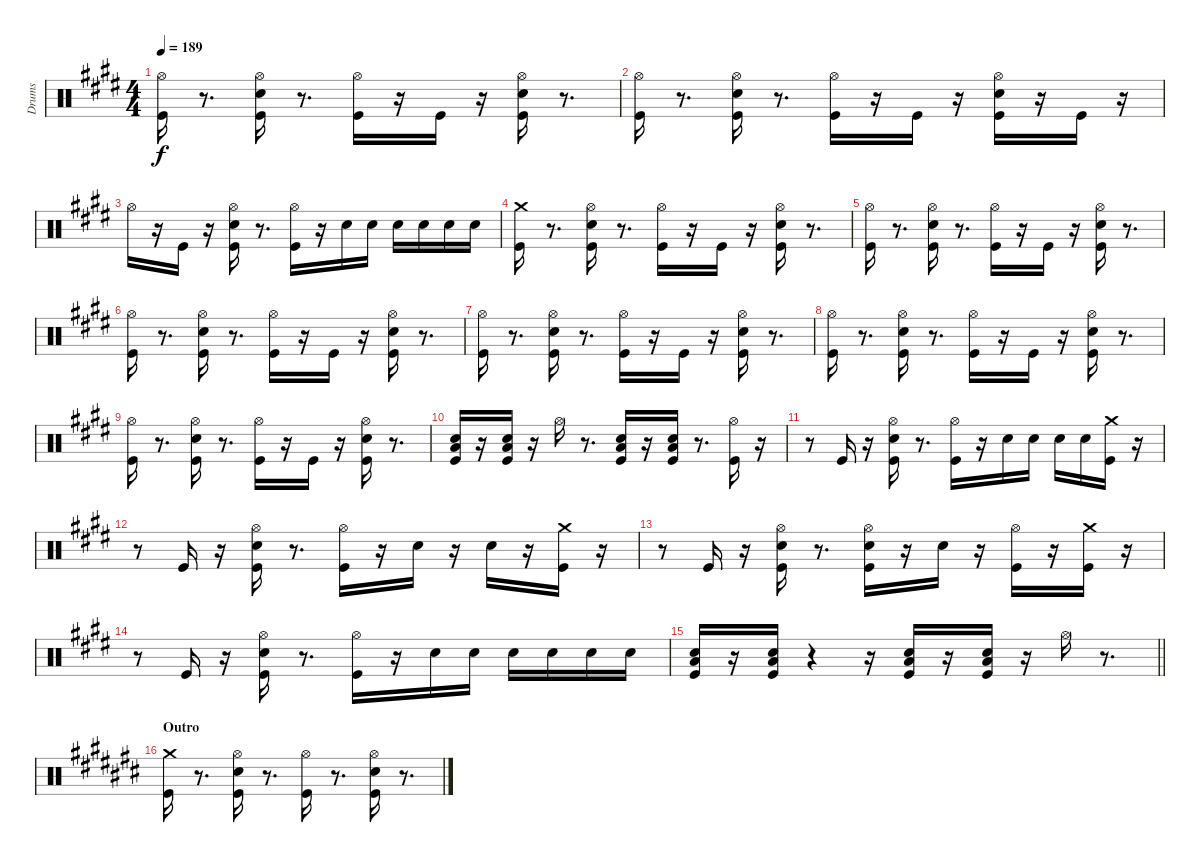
\track ("Drums" "Drums") {instrument percussion}
\staff {score}
\articulation defaults
\ts (4 4)
\tempo 189
\clef neutral
\ks c#minor
("Hi-Hat (open)" "Kick (hit)").16{dy f} r.8{d} ("Hi-Hat (open)" "Electric Snare (hit)" "Kick (hit)").16 r.8{d} ("Hi-Hat (open)" "Kick (hit)").16 r.16 "Kick (hit)".16 r.16 ("Hi-Hat (open)" "Electric Snare (hit)" "Kick (hit)").16 r.8{d} |
("Hi-Hat (open)" "Kick (hit)").16 r.8{d} ("Hi-Hat (open)" "Electric Snare (hit)" "Kick (hit)").16 r.8{d} ("Hi-Hat (open)" "Kick (hit)").16 r.16 "Kick (hit)".16 r.16 ("Hi-Hat (open)" "Electric Snare (hit)" "Kick (hit)").16 r.16 "Kick (hit)".16 r.16 |
"Hi-Hat (open)".16 r.16 "Kick (hit)".16 r.16 ("Hi-Hat (open)" "Electric Snare (hit)" "Kick (hit)").16 r.8{d} ("Hi-Hat (open)" "Kick (hit)").16 r.16 "Electric Snare (hit)".16 "Electric Snare (hit)".16 "Electric Snare (hit)".16 "Electric Snare (hit)".16 "Electric Snare (hit)".16 "Electric Snare (hit)".16 |
\ks e
("Crash medium (hit)" "Kick (hit)").16 r.8{d} ("Hi-Hat (open)" "Electric Snare (hit)" "Kick (hit)").16 r.8{d} ("Hi-Hat (open)" "Kick (hit)").16 r.16 "Kick (hit)".16 r.16 ("Hi-Hat (open)" "Electric Snare (hit)" "Kick (hit)").16 r.8{d} |
\ks c#minor
("Hi-Hat (open)" "Kick (hit)").16 r.8{d} ("Hi-Hat (open)" "Electric Snare (hit)" "Kick (hit)").16 r.8{d} ("Hi-Hat (open)" "Kick (hit)").16 r.16 "Kick (hit)".16 r.16 ("Hi-Hat (open)" "Electric Snare (hit)" "Kick (hit)").16 r.8{d} |
("Hi-Hat (open)" "Kick (hit)").16 r.8{d} ("Hi-Hat (open)" "Electric Snare (hit)" "Kick (hit)").16 r.8{d} ("Hi-Hat (open)" "Kick (hit)").16 r.16 "Kick (hit)".16 r.16 ("Hi-Hat (open)" "Electric Snare (hit)" "Kick (hit)").16 r.8{d} |
("Hi-Hat (open)" "Kick (hit)").16 r.8{d} ("Hi-Hat (open)" "Electric Snare (hit)" "Kick (hit)").16 r.8{d} ("Hi-Hat (open)" "Kick (hit)").16 r.16 "Kick (hit)".16 r.16 ("Hi-Hat (open)" "Electric Snare (hit)" "Kick (hit)").16 r.8{d} |
\ks e
("Hi-Hat (open)" "Kick (hit)").16 r.8{d} ("Hi-Hat (open)" "Electric Snare (hit)" "Kick (hit)").16 r.8{d} ("Hi-Hat (open)" "Kick (hit)").16 r.16 "Kick (hit)".16 r.16 ("Hi-Hat (open)" "Electric Snare (hit)" "Kick (hit)").16 r.8{d} |
\ks c#minor
("Hi-Hat (open)" "Kick (hit)").16 r.8{d} ("Hi-Hat (open)" "Electric Snare (hit)" "Kick (hit)").16 r.8{d} ("Hi-Hat (open)" "Kick (hit)").16 r.16 "Kick (hit)".16 r.16 ("Hi-Hat (open)" "Electric Snare (hit)" "Kick (hit)").16 r.8{d} |
("Electric Snare (hit)" "Low Floor Tom (hit)" "Kick (hit)").16 r.16 ("Electric Snare (hit)" "Low Floor Tom (hit)" "Kick (hit)").16 r.16 "Hi-Hat (open)".16 r.8{d} ("Electric Snare (hit)" "Low Floor Tom (hit)" "Kick (hit)").16 r.16 ("Electric Snare (hit)" "Low Floor Tom (hit)" "Kick (hit)").16 r.8{d} ("Hi-Hat (open)" "Kick (hit)").16 r.16 |
r.8 "Kick (hit)".16 r.16 ("Hi-Hat (open)" "Electric Snare (hit)" "Kick (hit)").16 r.8{d} ("Hi-Hat (open)" "Kick (hit)").16 r.16 "Electric Snare (hit)".16 "Electric Snare (hit)".16 "Electric Snare (hit)".16 "Electric Snare (hit)".16 ("Crash medium (hit)" "Kick (hit)").16 r.16 |
\ks e
r.8 "Kick (hit)".16 r.16 ("Hi-Hat (open)" "Electric Snare (hit)" "Kick (hit)").16 r.8{d} ("Hi-Hat (open)" "Kick (hit)").16 r.16 "Electric Snare (hit)".16 r.16 "Electric Snare (hit)".16 r.16 ("Crash medium (hit)" "Kick (hit)").16 r.16 |
\ks c#minor
r.8 "Kick (hit)".16 r.16 ("Hi-Hat (open)" "Electric Snare (hit)" "Kick (hit)").16 r.8{d} ("Hi-Hat (open)" "Electric Snare (hit)" "Kick (hit)").16 r.16 "Electric Snare (hit)".16 r.16 ("Hi-Hat (open)" "Kick (hit)").16 r.16 ("Crash medium (hit)" "Kick (hit)").16 r.16 |
r.8 "Kick (hit)".16 r.16 ("Hi-Hat (open)" "Electric Snare (hit)" "Kick (hit)").16 r.8{d} ("Hi-Hat (open)" "Kick (hit)").16 r.16 "Electric Snare (hit)".16 "Electric Snare (hit)".16 "Electric Snare (hit)".16 "Electric Snare (hit)".16 "Electric Snare (hit)".16 "Electric Snare (hit)".16 |
\barLineRight lightlight
("Electric Snare (hit)" "Low Floor Tom (hit)" "Kick (hit)").16 r.16 ("Electric Snare (hit)" "Low Floor Tom (hit)" "Kick (hit)").16 r.4 r.16 ("Electric Snare (hit)" "Low Floor Tom (hit)" "Kick (hit)").16 r.16 ("Electric Snare (hit)" "Low Floor Tom (hit)" "Kick (hit)").16 r.16 "Hi-Hat (open)".16 r.8{d} |
\section ("" "Outro")
\ks c#
("Crash medium (hit)" "Kick (hit)").16 r.8{d} ("Hi-Hat (open)" "Electric Snare (hit)" "Kick (hit)").16 r.8{d} ("Hi-Hat (open)" "Kick (hit)").16 r.8{d} ("Hi-Hat (open)" "Electric Snare (hit)" "Kick (hit)").16 r.8{d}
